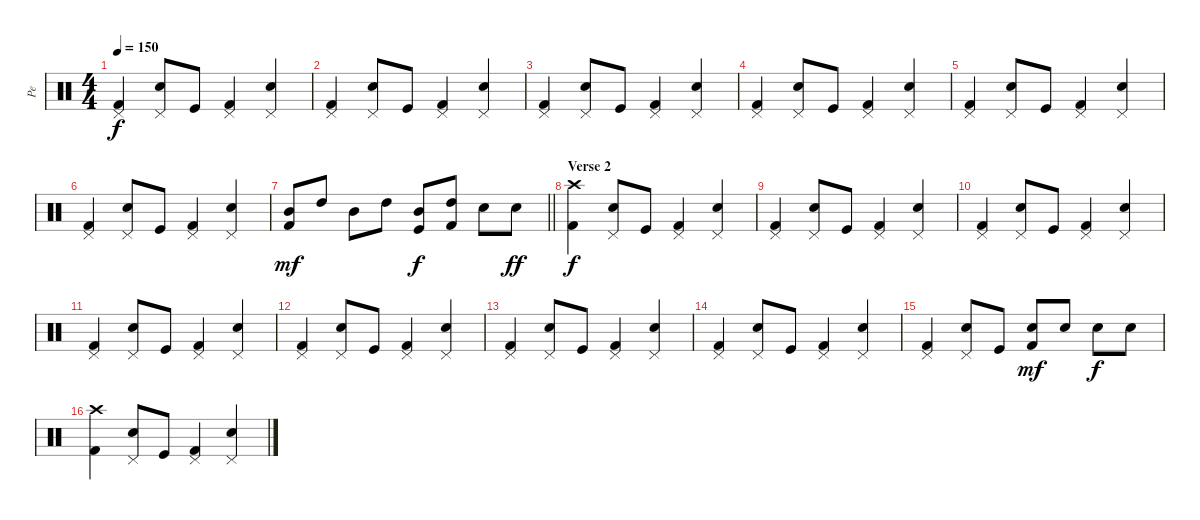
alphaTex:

\track ("Pe" "Pe") {instrument percussion}
\staff {score}
\articulation defaults
\ts (4 4)
\tempo 150
\clef neutral
\ks c
("Kick (hit) 2" "Pedal Hi-Hat (hit)").4{dy f} ("Electric Snare (hit)" "Pedal Hi-Hat (hit)").8 "Kick (hit)".8 ("Kick (hit) 2" "Pedal Hi-Hat (hit)").4 ("Electric Snare (hit)" "Pedal Hi-Hat (hit)").4 |
("Kick (hit) 2" "Pedal Hi-Hat (hit)").4 ("Electric Snare (hit)" "Pedal Hi-Hat (hit)").8 "Kick (hit)".8 ("Kick (hit) 2" "Pedal Hi-Hat (hit)").4 ("Electric Snare (hit)" "Pedal Hi-Hat (hit)").4 |
("Kick (hit) 2" "Pedal Hi-Hat (hit)").4 ("Electric Snare (hit)" "Pedal Hi-Hat (hit)").8 "Kick (hit)".8 ("Kick (hit) 2" "Pedal Hi-Hat (hit)").4 ("Electric Snare (hit)" "Pedal Hi-Hat (hit)").4 |
("Kick (hit) 2" "Pedal Hi-Hat (hit)").4 ("Electric Snare (hit)" "Pedal Hi-Hat (hit)").8 "Kick (hit)".8 ("Kick (hit) 2" "Pedal Hi-Hat (hit)").4 ("Electric Snare (hit)" "Pedal Hi-Hat (hit)").4 |
("Kick (hit) 2" "Pedal Hi-Hat (hit)").4 ("Electric Snare (hit)" "Pedal Hi-Hat (hit)").8 "Kick (hit)".8 ("Kick (hit) 2" "Pedal Hi-Hat (hit)").4 ("Electric Snare (hit)" "Pedal Hi-Hat (hit)").4 |
("Kick (hit) 2" "Pedal Hi-Hat (hit)").4 ("Electric Snare (hit)" "Pedal Hi-Hat (hit)").8 "Kick (hit)".8 ("Kick (hit) 2" "Pedal Hi-Hat (hit)").4 ("Electric Snare (hit)" "Pedal Hi-Hat (hit)").4 |
\barLineRight lightlight
("Kick (hit) 2" "Mid Tom (hit)").8{dy mf} "High Tom (hit)".8 "Mid Tom (hit)".8 "High Tom (hit)".8 ("Kick (hit)" "Mid Tom (hit)").8{dy f} ("Kick (hit) 2" "High Tom (hit)").8 "Electric Snare (hit)".8 "Electric Snare (hit)".8{dy ff} |
\section ("" "Verse 2")
("Kick (hit) 2" "Crash high (hit)").4{dy f} ("Electric Snare (hit)" "Pedal Hi-Hat (hit)").8 "Kick (hit)".8 ("Kick (hit) 2" "Pedal Hi-Hat (hit)").4 ("Electric Snare (hit)" "Pedal Hi-Hat (hit)").4 |
("Kick (hit) 2" "Pedal Hi-Hat (hit)").4 ("Electric Snare (hit)" "Pedal Hi-Hat (hit)").8 "Kick (hit)".8 ("Kick (hit) 2" "Pedal Hi-Hat (hit)").4 ("Electric Snare (hit)" "Pedal Hi-Hat (hit)").4 |
("Kick (hit) 2" "Pedal Hi-Hat (hit)").4 ("Electric Snare (hit)" "Pedal Hi-Hat (hit)").8 "Kick (hit)".8 ("Kick (hit) 2" "Pedal Hi-Hat (hit)").4 ("Electric Snare (hit)" "Pedal Hi-Hat (hit)").4 |
("Kick (hit) 2" "Pedal Hi-Hat (hit)").4 ("Electric Snare (hit)" "Pedal Hi-Hat (hit)").8 "Kick (hit)".8 ("Kick (hit) 2" "Pedal Hi-Hat (hit)").4 ("Electric Snare (hit)" "Pedal Hi-Hat (hit)").4 |
("Kick (hit) 2" "Pedal Hi-Hat (hit)").4 ("Electric Snare (hit)" "Pedal Hi-Hat (hit)").8 "Kick (hit)".8 ("Kick (hit) 2" "Pedal Hi-Hat (hit)").4 ("Electric Snare (hit)" "Pedal Hi-Hat (hit)").4 |
("Kick (hit) 2" "Pedal Hi-Hat (hit)").4 ("Electric Snare (hit)" "Pedal Hi-Hat (hit)").8 "Kick (hit)".8 ("Kick (hit) 2" "Pedal Hi-Hat (hit)").4 ("Electric Snare (hit)" "Pedal Hi-Hat (hit)").4 |
("Kick (hit) 2" "Pedal Hi-Hat (hit)").4 ("Electric Snare (hit)" "Pedal Hi-Hat (hit)").8 "Kick (hit)".8 ("Kick (hit) 2" "Pedal Hi-Hat (hit)").4 ("Electric Snare (hit)" "Pedal Hi-Hat (hit)").4 |
("Kick (hit) 2" "Pedal Hi-Hat (hit)").4 ("Electric Snare (hit)" "Pedal Hi-Hat (hit)").8 "Kick (hit)".8 ("Kick (hit) 2" "Electric Snare (hit)").8{dy mf} "Electric Snare (hit)".8 "Electric Snare (hit)".8{dy f} "Electric Snare (hit)".8 |
("Kick (hit) 2" "Crash high (hit)").4 ("Electric Snare (hit)" "Pedal Hi-Hat (hit)").8 "Kick (hit)".8 ("Kick (hit) 2" "Pedal Hi-Hat (hit)").4 ("Electric Snare (hit)" "Pedal Hi-Hat (hit)").4
